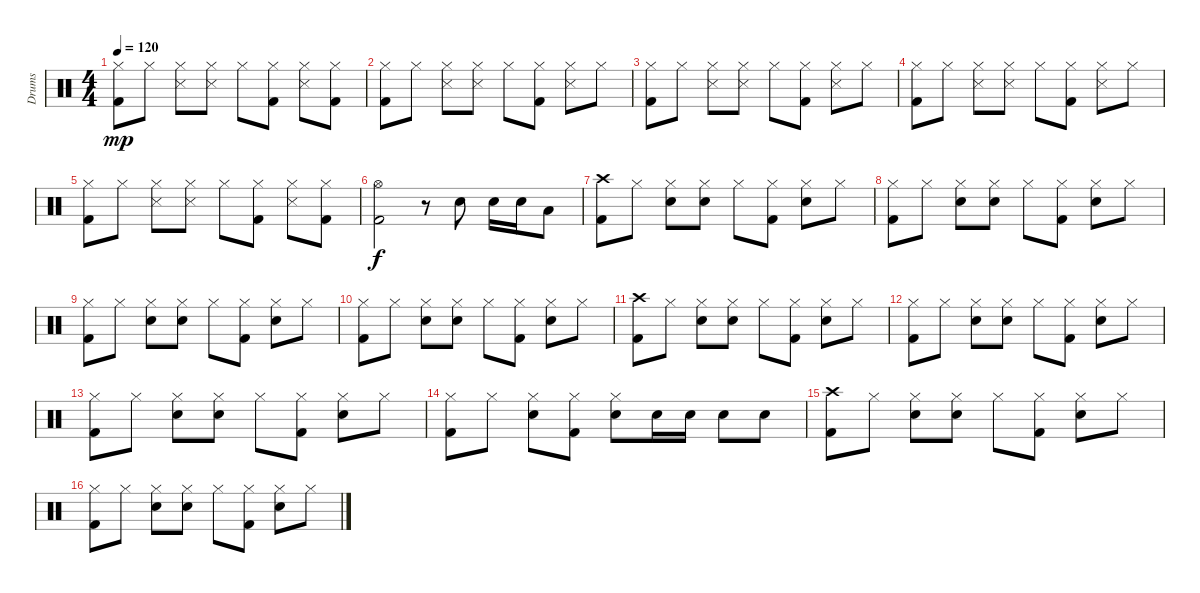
\track ("Drums" "Drums") {instrument percussion}
\staff {score}
\articulation defaults
\ts (4 4)
\tempo 120
\clef neutral
\ks c
("Hi-Hat (closed)" "Kick (hit) 2").8{dy mp} "Hi-Hat (closed)".8 ("Hi-Hat (closed)" "Snare (side stick) 3").8 ("Hi-Hat (closed)" "Snare (side stick) 3").8 "Hi-Hat (closed)".8 ("Hi-Hat (closed)" "Kick (hit) 2").8 ("Hi-Hat (closed)" "Snare (side stick) 3").8 ("Hi-Hat (closed)" "Kick (hit) 2").8 |
("Hi-Hat (closed)" "Kick (hit) 2").8 "Hi-Hat (closed)".8 ("Hi-Hat (closed)" "Snare (side stick) 3").8 ("Hi-Hat (closed)" "Snare (side stick) 3").8 "Hi-Hat (closed)".8 ("Hi-Hat (closed)" "Kick (hit) 2").8 ("Hi-Hat (closed)" "Snare (side stick) 3").8 "Hi-Hat (closed)".8 |
("Hi-Hat (closed)" "Kick (hit) 2").8 "Hi-Hat (closed)".8 ("Hi-Hat (closed)" "Snare (side stick) 3").8 ("Hi-Hat (closed)" "Snare (side stick) 3").8 "Hi-Hat (closed)".8 ("Hi-Hat (closed)" "Kick (hit) 2").8 ("Hi-Hat (closed)" "Snare (side stick) 3").8 "Hi-Hat (closed)".8 |
("Hi-Hat (closed)" "Kick (hit) 2").8 "Hi-Hat (closed)".8 ("Hi-Hat (closed)" "Snare (side stick) 3").8 ("Hi-Hat (closed)" "Snare (side stick) 3").8 "Hi-Hat (closed)".8 ("Hi-Hat (closed)" "Kick (hit) 2").8 ("Hi-Hat (closed)" "Snare (side stick) 3").8 "Hi-Hat (closed)".8 |
("Hi-Hat (closed)" "Kick (hit) 2").8 "Hi-Hat (closed)".8 ("Hi-Hat (closed)" "Snare (side stick) 3").8 ("Hi-Hat (closed)" "Snare (side stick) 3").8 "Hi-Hat (closed)".8 ("Hi-Hat (closed)" "Kick (hit) 2").8 ("Hi-Hat (closed)" "Snare (side stick) 3").8 ("Hi-Hat (closed)" "Kick (hit) 2").8 |
("Hi-Hat (open)" "Kick (hit) 2").2{dy f} r.8 "Snare (hit) 2".8 "Snare (hit) 2".16 "Snare (hit) 2".16 "Low Tom (hit)".8 |
("Crash high (hit)" "Kick (hit) 2").8 "Hi-Hat (closed)".8 ("Hi-Hat (closed)" "Snare (hit) 2").8 ("Hi-Hat (closed)" "Snare (hit) 2").8 "Hi-Hat (closed)".8 ("Hi-Hat (closed)" "Kick (hit) 2").8 ("Hi-Hat (closed)" "Snare (hit) 2").8 "Hi-Hat (closed)".8 |
("Hi-Hat (closed)" "Kick (hit) 2").8 "Hi-Hat (closed)".8 ("Hi-Hat (closed)" "Snare (hit) 2").8 ("Hi-Hat (closed)" "Snare (hit) 2").8 "Hi-Hat (closed)".8 ("Hi-Hat (closed)" "Kick (hit) 2").8 ("Hi-Hat (closed)" "Snare (hit) 2").8 "Hi-Hat (closed)".8 |
("Hi-Hat (closed)" "Kick (hit) 2").8 "Hi-Hat (closed)".8 ("Hi-Hat (closed)" "Snare (hit) 2").8 ("Hi-Hat (closed)" "Snare (hit) 2").8 "Hi-Hat (closed)".8 ("Hi-Hat (closed)" "Kick (hit) 2").8 ("Hi-Hat (closed)" "Snare (hit) 2").8 "Hi-Hat (closed)".8 |
("Hi-Hat (closed)" "Kick (hit) 2").8 "Hi-Hat (closed)".8 ("Hi-Hat (closed)" "Snare (hit) 2").8 ("Hi-Hat (closed)" "Snare (hit) 2").8 "Hi-Hat (closed)".8 ("Hi-Hat (closed)" "Kick (hit) 2").8 ("Hi-Hat (closed)" "Snare (hit) 2").8 "Hi-Hat (closed)".8 |
("Crash high (hit)" "Kick (hit) 2").8 "Hi-Hat (closed)".8 ("Hi-Hat (closed)" "Snare (hit) 2").8 ("Hi-Hat (closed)" "Snare (hit) 2").8 "Hi-Hat (closed)".8 ("Hi-Hat (closed)" "Kick (hit) 2").8 ("Hi-Hat (closed)" "Snare (hit) 2").8 "Hi-Hat (closed)".8 |
("Hi-Hat (closed)" "Kick (hit) 2").8 "Hi-Hat (closed)".8 ("Hi-Hat (closed)" "Snare (hit) 2").8 ("Hi-Hat (closed)" "Snare (hit) 2").8 "Hi-Hat (closed)".8 ("Hi-Hat (closed)" "Kick (hit) 2").8 ("Hi-Hat (closed)" "Snare (hit) 2").8 "Hi-Hat (closed)".8 |
("Hi-Hat (closed)" "Kick (hit) 2").8 "Hi-Hat (closed)".8 ("Hi-Hat (closed)" "Snare (hit) 2").8 ("Hi-Hat (closed)" "Snare (hit) 2").8 "Hi-Hat (closed)".8 ("Hi-Hat (closed)" "Kick (hit) 2").8 ("Hi-Hat (closed)" "Snare (hit) 2").8 "Hi-Hat (closed)".8 |
("Hi-Hat (closed)" "Kick (hit) 2").8 "Hi-Hat (closed)".8 ("Hi-Hat (closed)" "Snare (hit) 2").8 ("Hi-Hat (closed)" "Kick (hit) 2").8 ("Hi-Hat (closed)" "Snare (hit) 2").8 "Snare (hit) 2".16 "Snare (hit) 2".16 "Snare (hit) 2".8 "Snare (hit) 2".8 |
("Crash high (hit)" "Kick (hit) 2").8 "Hi-Hat (closed)".8 ("Hi-Hat (closed)" "Snare (hit) 2").8 ("Hi-Hat (closed)" "Snare (hit) 2").8 "Hi-Hat (closed)".8 ("Hi-Hat (closed)" "Kick (hit) 2").8 ("Hi-Hat (closed)" "Snare (hit) 2").8 "Hi-Hat (closed)".8 |
("Hi-Hat (closed)" "Kick (hit) 2").8 "Hi-Hat (closed)".8 ("Hi-Hat (closed)" "Snare (hit) 2").8 ("Hi-Hat (closed)" "Snare (hit) 2").8 "Hi-Hat (closed)".8 ("Hi-Hat (closed)" "Kick (hit) 2").8 ("Hi-Hat (closed)" "Snare (hit) 2").8 "Hi-Hat (closed)".8
